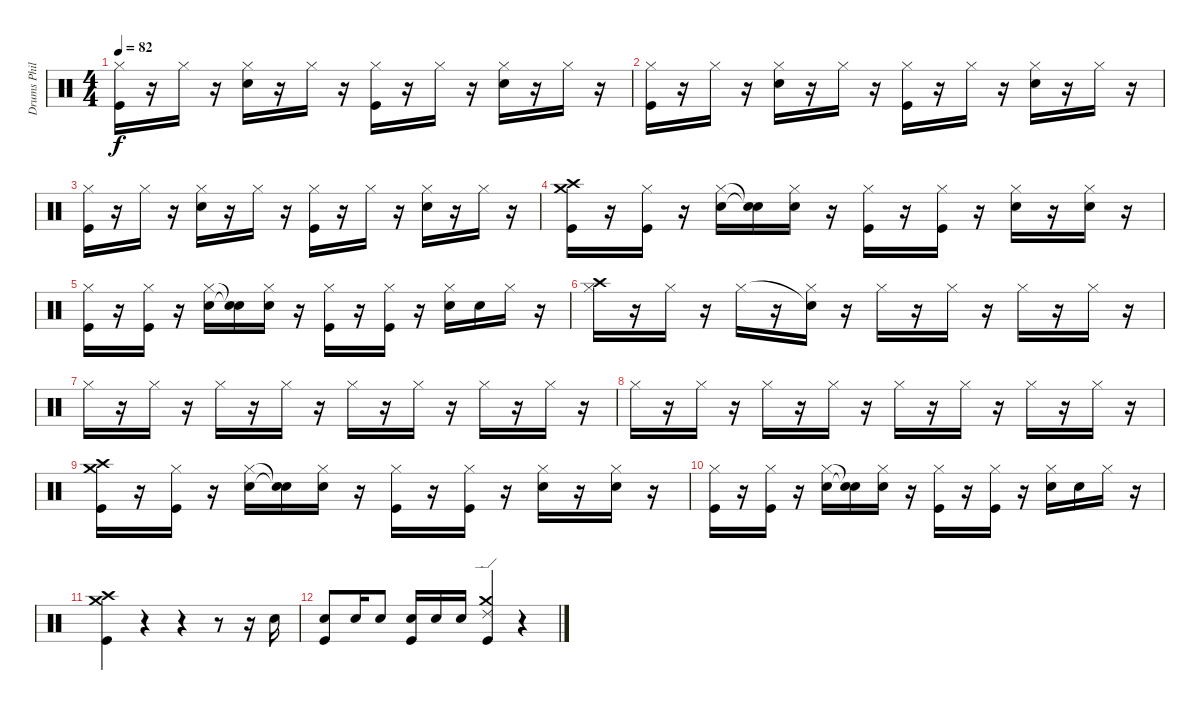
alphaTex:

\track ("Drums Phill" "Drums Phil") {instrument percussion}
\staff {score}
\articulation defaults
\ts (4 4)
\tempo 82
\clef neutral
\ks c
("Hi-Hat (closed)" "Kick (hit)").16{dy f} r.16 "Hi-Hat (closed)".16 r.16 ("Hi-Hat (closed)" "Snare (hit) 2").16 r.16 "Hi-Hat (closed)".16 r.16 ("Hi-Hat (closed)" "Kick (hit)").16 r.16 "Hi-Hat (closed)".16 r.16 ("Hi-Hat (closed)" "Snare (hit) 2").16 r.16 "Hi-Hat (closed)".16 r.16 |
("Hi-Hat (closed)" "Kick (hit)").16 r.16 "Hi-Hat (closed)".16 r.16 ("Hi-Hat (closed)" "Snare (hit) 2").16 r.16 "Hi-Hat (closed)".16 r.16 ("Hi-Hat (closed)" "Kick (hit)").16 r.16 "Hi-Hat (closed)".16 r.16 ("Hi-Hat (closed)" "Snare (hit) 2").16 r.16 "Hi-Hat (closed)".16 r.16 |
("Hi-Hat (closed)" "Kick (hit)").16 r.16 "Hi-Hat (closed)".16 r.16 ("Hi-Hat (closed)" "Snare (hit) 2").16 r.16 "Hi-Hat (closed)".16 r.16 ("Hi-Hat (closed)" "Kick (hit)").16 r.16 "Hi-Hat (closed)".16 r.16 ("Hi-Hat (closed)" "Snare (hit) 2").16 r.16 "Hi-Hat (closed)".16 r.16 |
("Crash high (hit)" "Crash medium (hit)" "Kick (hit)").16 r.16 ("Hi-Hat (closed)" "Kick (hit)").16 r.16 ("Hi-Hat (closed)" "Snare (hit) 2").16 ("Snare (hit)"{t} "Snare (hit)"{t}).16 ("Hi-Hat (closed)" "Snare (hit) 2").16 r.16 ("Hi-Hat (closed)" "Kick (hit)").16 r.16 ("Hi-Hat (closed)" "Kick (hit)").16 r.16 ("Hi-Hat (closed)" "Snare (hit) 2").16 r.16 ("Hi-Hat (closed)" "Snare (hit) 2").16 r.16 |
("Hi-Hat (closed)" "Kick (hit)").16 r.16 ("Hi-Hat (closed)" "Kick (hit)").16 r.16 ("Hi-Hat (closed)" "Snare (hit) 2").16 ("Snare (hit)"{t} "Snare (hit)"{t}).16 ("Hi-Hat (closed)" "Snare (hit) 2").16 r.16 ("Hi-Hat (closed)" "Kick (hit)").16 r.16 ("Hi-Hat (closed)" "Kick (hit)").16 r.16 ("Hi-Hat (closed)" "Snare (hit) 2").16 "Snare (hit) 2".16 "Hi-Hat (closed)".16 r.16 |
("Crash high (hit)" "Hi-Hat (closed)").16 r.16 "Hi-Hat (closed)".16 r.16 "Hi-Hat (closed)".16 r.16 ("Snare (hit)"{t} "Hi-Hat (closed)").16 r.16 "Hi-Hat (closed)".16 r.16 "Hi-Hat (closed)".16 r.16 "Hi-Hat (closed)".16 r.16 "Hi-Hat (closed)".16 r.16 |
"Hi-Hat (closed)".16 r.16 "Hi-Hat (closed)".16 r.16 "Hi-Hat (closed)".16 r.16 "Hi-Hat (closed)".16 r.16 "Hi-Hat (closed)".16 r.16 "Hi-Hat (closed)".16 r.16 "Hi-Hat (closed)".16 r.16 "Hi-Hat (closed)".16 r.16 |
"Hi-Hat (closed)".16 r.16 "Hi-Hat (closed)".16 r.16 "Hi-Hat (closed)".16 r.16 "Hi-Hat (closed)".16 r.16 "Hi-Hat (closed)".16 r.16 "Hi-Hat (closed)".16 r.16 "Hi-Hat (closed)".16 r.16 "Hi-Hat (closed)".16 r.16 |
("Crash high (hit)" "Crash medium (hit)" "Kick (hit)").16 r.16 ("Hi-Hat (closed)" "Kick (hit)").16 r.16 ("Hi-Hat (closed)" "Snare (hit) 2").16 ("Snare (hit)"{t} "Snare (hit)"{t}).16 ("Hi-Hat (closed)" "Snare (hit) 2").16 r.16 ("Hi-Hat (closed)" "Kick (hit)").16 r.16 ("Hi-Hat (closed)" "Kick (hit)").16 r.16 ("Hi-Hat (closed)" "Snare (hit) 2").16 r.16 ("Hi-Hat (closed)" "Snare (hit) 2").16 r.16 |
("Hi-Hat (closed)" "Kick (hit)").16 r.16 ("Hi-Hat (closed)" "Kick (hit)").16 r.16 ("Hi-Hat (closed)" "Snare (hit) 2").16 ("Snare (hit)"{t} "Snare (hit)"{t}).16 ("Hi-Hat (closed)" "Snare (hit) 2").16 r.16 ("Hi-Hat (closed)" "Kick (hit)").16 r.16 ("Hi-Hat (closed)" "Kick (hit)").16 r.16 ("Hi-Hat (closed)" "Snare (hit) 2").16 "Snare (hit) 2".16 "Hi-Hat (closed)".16 r.16 |
("Crash medium (hit)" "Crash high (hit)" "Kick (hit)").4 r.4 r.4 r.8 r.16 "Snare (hit) 2".16 |
("Snare (hit) 2" "Kick (hit)").8 "Snare (hit) 2".16 "Snare (hit) 2".8 ("Snare (hit) 2" "Kick (hit)").16 "Snare (hit) 2".16 "Snare (hit) 2".16 ("Ride (edge) 2" "Crash medium (hit)" "Kick (hit)").4 r.4
